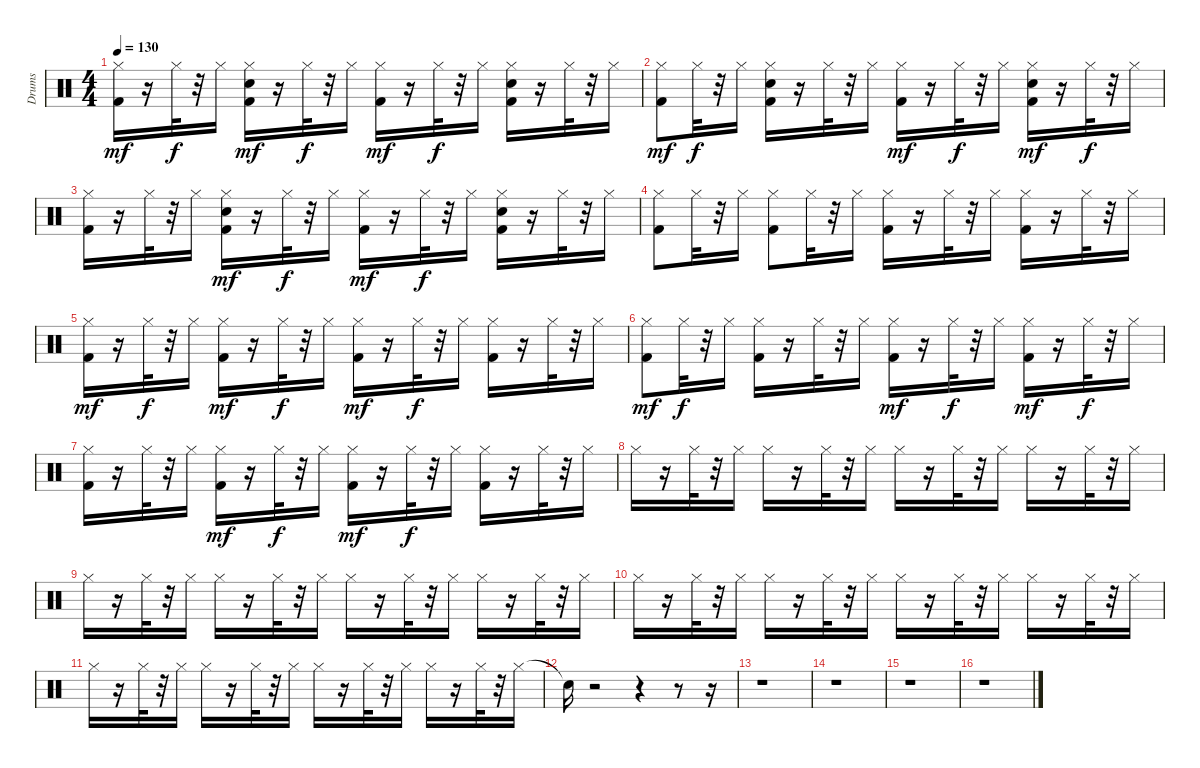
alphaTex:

\track ("Drums" "Drums") {instrument percussion}
\staff {score}
\articulation defaults
\ts (4 4)
\tempo 130
\clef neutral
\ks c
("Kick (hit) 2" "Hi-Hat (closed)").16{dy mf} r.16 "Hi-Hat (closed)".32{dy f} r.32 "Hi-Hat (closed)".16 ("Snare (hit) 2" "Kick (hit) 2" "Hi-Hat (closed)").16{dy mf} r.16 "Hi-Hat (closed)".32{dy f} r.32 "Hi-Hat (closed)".16 ("Kick (hit) 2" "Hi-Hat (closed)").16{dy mf} r.16 "Hi-Hat (closed)".32{dy f} r.32 "Hi-Hat (closed)".16 ("Snare (hit) 2" "Kick (hit) 2" "Hi-Hat (closed)").16 r.16 "Hi-Hat (closed)".32 r.32 "Hi-Hat (closed)".16 |
("Kick (hit) 2" "Hi-Hat (closed)").8{dy mf} "Hi-Hat (closed)".32{dy f} r.32 "Hi-Hat (closed)".16 ("Snare (hit) 2" "Kick (hit) 2" "Hi-Hat (closed)").16 r.16 "Hi-Hat (closed)".32 r.32 "Hi-Hat (closed)".16 ("Kick (hit) 2" "Hi-Hat (closed)").16{dy mf} r.16 "Hi-Hat (closed)".32{dy f} r.32 "Hi-Hat (closed)".16 ("Snare (hit) 2" "Kick (hit) 2" "Hi-Hat (closed)").16{dy mf} r.16 "Hi-Hat (closed)".32{dy f} r.32 "Hi-Hat (closed)".16 |
("Kick (hit) 2" "Hi-Hat (closed)").16 r.16 "Hi-Hat (closed)".32 r.32 "Hi-Hat (closed)".16 ("Kick (hit) 2" "Snare (hit) 2" "Hi-Hat (closed)").16{dy mf} r.16 "Hi-Hat (closed)".32{dy f} r.32 "Hi-Hat (closed)".16 ("Kick (hit) 2" "Hi-Hat (closed)").16{dy mf} r.16 "Hi-Hat (closed)".32{dy f} r.32 "Hi-Hat (closed)".16 ("Snare (hit) 2" "Kick (hit) 2" "Hi-Hat (closed)").16 r.16 "Hi-Hat (closed)".32 r.32 "Hi-Hat (closed)".16 |
("Hi-Hat (closed)" "Kick (hit) 2").8 "Hi-Hat (closed)".32 r.32 "Hi-Hat (closed)".16 ("Hi-Hat (closed)" "Kick (hit) 2").8 "Hi-Hat (closed)".32 r.32 "Hi-Hat (closed)".16 ("Hi-Hat (closed)" "Kick (hit) 2").16 r.16 "Hi-Hat (closed)".32 r.32 "Hi-Hat (closed)".16 ("Hi-Hat (closed)" "Kick (hit) 2").16 r.16 "Hi-Hat (closed)".32 r.32 "Hi-Hat (closed)".16 |
("Kick (hit) 2" "Hi-Hat (closed)").16{dy mf} r.16 "Hi-Hat (closed)".32{dy f} r.32 "Hi-Hat (closed)".16 ("Kick (hit) 2" "Hi-Hat (closed)").16{dy mf} r.16 "Hi-Hat (closed)".32{dy f} r.32 "Hi-Hat (closed)".16 ("Kick (hit) 2" "Hi-Hat (closed)").16{dy mf} r.16 "Hi-Hat (closed)".32{dy f} r.32 "Hi-Hat (closed)".16 ("Kick (hit) 2" "Hi-Hat (closed)").16 r.16 "Hi-Hat (closed)".32 r.32 "Hi-Hat (closed)".16 |
("Kick (hit) 2" "Hi-Hat (closed)").8{dy mf} "Hi-Hat (closed)".32{dy f} r.32 "Hi-Hat (closed)".16 ("Kick (hit) 2" "Hi-Hat (closed)").16 r.16 "Hi-Hat (closed)".32 r.32 "Hi-Hat (closed)".16 ("Kick (hit) 2" "Hi-Hat (closed)").16{dy mf} r.16 "Hi-Hat (closed)".32{dy f} r.32 "Hi-Hat (closed)".16 ("Kick (hit) 2" "Hi-Hat (closed)").16{dy mf} r.16 "Hi-Hat (closed)".32{dy f} r.32 "Hi-Hat (closed)".16 |
("Kick (hit) 2" "Hi-Hat (closed)").16 r.16 "Hi-Hat (closed)".32 r.32 "Hi-Hat (closed)".16 ("Kick (hit) 2" "Hi-Hat (closed)").16{dy mf} r.16 "Hi-Hat (closed)".32{dy f} r.32 "Hi-Hat (closed)".16 ("Kick (hit) 2" "Hi-Hat (closed)").16{dy mf} r.16 "Hi-Hat (closed)".32{dy f} r.32 "Hi-Hat (closed)".16 ("Kick (hit) 2" "Hi-Hat (closed)").16 r.16 "Hi-Hat (closed)".32 r.32 "Hi-Hat (closed)".16 |
"Hi-Hat (closed)".16 r.16 "Hi-Hat (closed)".32 r.32 "Hi-Hat (closed)".16 "Hi-Hat (closed)".16 r.16 "Hi-Hat (closed)".32 r.32 "Hi-Hat (closed)".16 "Hi-Hat (closed)".16 r.16 "Hi-Hat (closed)".32 r.32 "Hi-Hat (closed)".16 "Hi-Hat (closed)".16 r.16 "Hi-Hat (closed)".32 r.32 "Hi-Hat (closed)".16 |
"Hi-Hat (closed)".16 r.16 "Hi-Hat (closed)".32 r.32 "Hi-Hat (closed)".16 "Hi-Hat (closed)".16 r.16 "Hi-Hat (closed)".32 r.32 "Hi-Hat (closed)".16 "Hi-Hat (closed)".16 r.16 "Hi-Hat (closed)".32 r.32 "Hi-Hat (closed)".16 "Hi-Hat (closed)".16 r.16 "Hi-Hat (closed)".32 r.32 "Hi-Hat (closed)".16 |
"Hi-Hat (closed)".16 r.16 "Hi-Hat (closed)".32 r.32 "Hi-Hat (closed)".16 "Hi-Hat (closed)".16 r.16 "Hi-Hat (closed)".32 r.32 "Hi-Hat (closed)".16 "Hi-Hat (closed)".16 r.16 "Hi-Hat (closed)".32 r.32 "Hi-Hat (closed)".16 "Hi-Hat (closed)".16 r.16 "Hi-Hat (closed)".32 r.32 "Hi-Hat (closed)".16 |
"Hi-Hat (closed)".16 r.16 "Hi-Hat (closed)".32 r.32 "Hi-Hat (closed)".16 "Hi-Hat (closed)".16 r.16 "Hi-Hat (closed)".32 r.32 "Hi-Hat (closed)".16 "Hi-Hat (closed)".16 r.16 "Hi-Hat (closed)".32 r.32 "Hi-Hat (closed)".16 "Hi-Hat (closed)".16 r.16 "Hi-Hat (closed)".32 r.32 "Hi-Hat (closed)".16 |
"Snare (hit)"{t}.16 r.2 r.4 r.8 r.16 |
r.1 |
r.1 |
r.1 |
r.1
